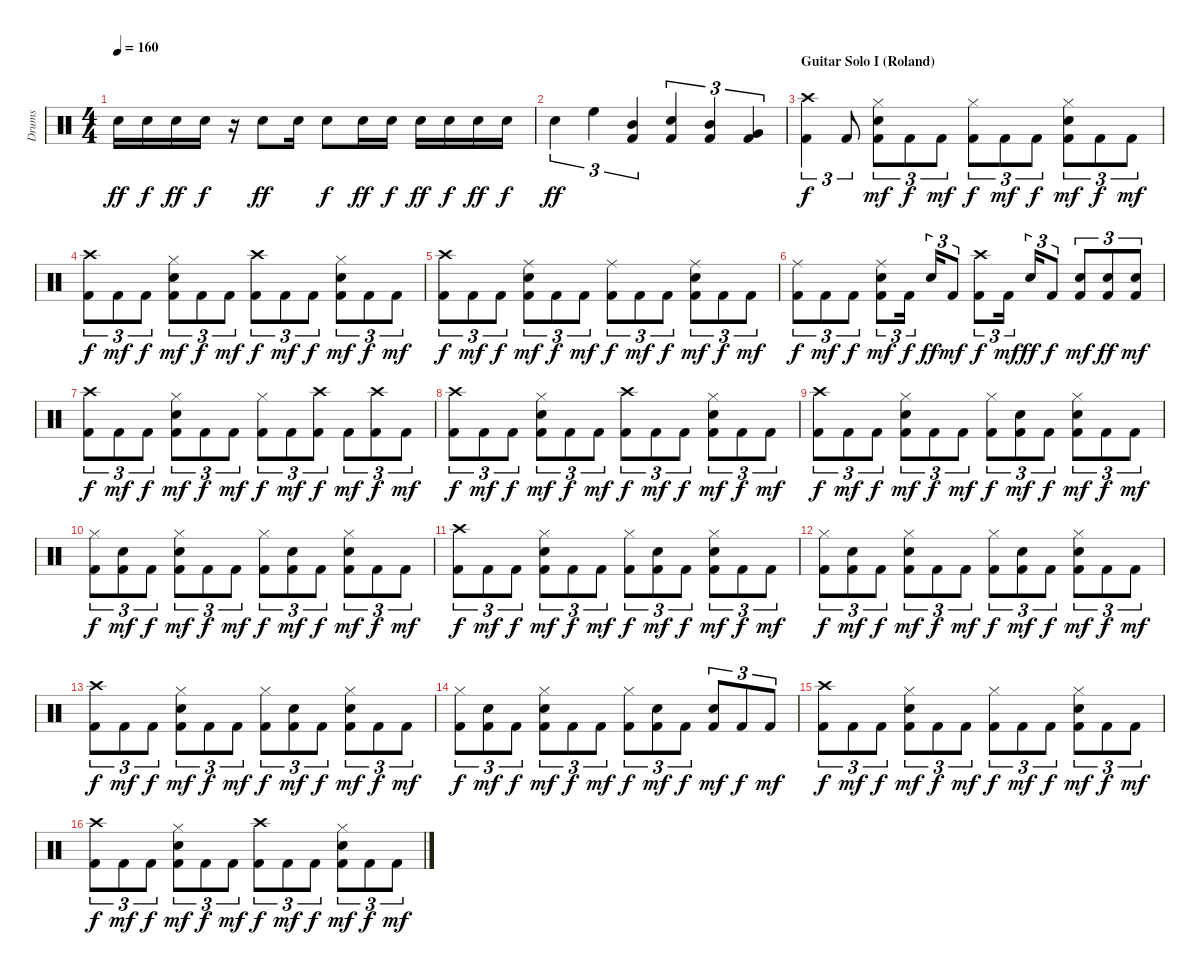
\track ("Drums" "Drums") {instrument percussion}
\staff {score}
\articulation defaults
\ts (4 4)
\tempo 160
\clef neutral
\ks c "Snare (hit) 2".16{dy ff} "Snare (hit) 2".16{dy f} "Snare (hit) 2".16{dy ff} "Snare (hit) 2".16{dy f}
r.16 "Snare (hit) 2".8{dy ff} "Snare (hit) 2".16 "Snare (hit) 2".8{dy f} "Snare (hit) 2".16{dy ff} "Snare (hit) 2".16{dy f} "Snare (hit) 2".16{dy ff} "Snare (hit) 2".16{dy f} "Snare (hit) 2".16{dy ff} "Snare (hit) 2".16{dy f} |
"Snare (hit) 2".4{tu (3 2) dy ff} "High Floor Tom (hit)".4{tu (3 2)} ("Mid Tom (hit)" "Kick (hit) 2").4{tu (3 2)} ("Snare (hit) 2" "Kick (hit) 2").4{tu (3 2)} ("Mid Tom (hit)" "Kick (hit) 2").4{tu (3 2)} ("Very Low Tom (hit)" "Kick (hit) 2").4{tu (3 2)} |
\section ("" "Guitar Solo I (Roland)")
("Crash high (hit)" "Kick (hit) 2").4{tu (3 2) dy f} "Kick (hit) 2".8{tu (3 2)} ("Snare (hit) 2" "Hi-Hat (closed)" "Kick (hit) 2").8{tu (3 2) dy mf} "Kick (hit) 2".8{tu (3 2) dy f} "Kick (hit) 2".8{tu (3 2) dy mf} ("Hi-Hat (closed)" "Kick (hit) 2").8{tu (3 2) dy f} "Kick (hit) 2".8{tu (3 2) dy mf} "Kick (hit) 2".8{tu (3 2) dy f} ("Snare (hit) 2" "Hi-Hat (closed)" "Kick (hit) 2").8{tu (3 2) dy mf} "Kick (hit) 2".8{tu (3 2) dy f} "Kick (hit) 2".8{tu (3 2) dy mf} |
("Crash high (hit)" "Kick (hit) 2").8{tu (3 2) dy f} "Kick (hit) 2".8{tu (3 2) dy mf} "Kick (hit) 2".8{tu (3 2) dy f} ("Snare (hit) 2" "Hi-Hat (closed)" "Kick (hit) 2").8{tu (3 2) dy mf} "Kick (hit) 2".8{tu (3 2) dy f} "Kick (hit) 2".8{tu (3 2) dy mf} ("Crash high (hit)" "Kick (hit) 2").8{tu (3 2) dy f} "Kick (hit) 2".8{tu (3 2) dy mf} "Kick (hit) 2".8{tu (3 2) dy f} ("Snare (hit) 2" "Hi-Hat (closed)" "Kick (hit) 2").8{tu (3 2) dy mf} "Kick (hit) 2".8{tu (3 2) dy f} "Kick (hit) 2".8{tu (3 2) dy mf} |
("Crash high (hit)" "Kick (hit) 2").8{tu (3 2) dy f} "Kick (hit) 2".8{tu (3 2) dy mf} "Kick (hit) 2".8{tu (3 2) dy f} ("Ride (middle)" "Snare (hit) 2" "Kick (hit) 2").8{tu (3 2) dy mf} "Kick (hit) 2".8{tu (3 2) dy f} "Kick (hit) 2".8{tu (3 2) dy mf} ("Ride (middle)" "Kick (hit) 2").8{tu (3 2) dy f} "Kick (hit) 2".8{tu (3 2) dy mf} "Kick (hit) 2".8{tu (3 2) dy f} ("Ride (middle)" "Snare (hit) 2" "Kick (hit) 2").8{tu (3 2) dy mf} "Kick (hit) 2".8{tu (3 2) dy f} "Kick (hit) 2".8{tu (3 2) dy mf} |
("Ride (middle)" "Kick (hit) 2").8{tu (3 2) dy f} "Kick (hit) 2".8{tu (3 2) dy mf} "Kick (hit) 2".8{tu (3 2) dy f} ("Snare (hit) 2" "Ride (middle)" "Kick (hit) 2").8{tu (3 2) dy mf} "Kick (hit) 2".16{tu (3 2) dy f} "Snare (hit) 2".16{tu (3 2) dy ff} "Kick (hit) 2".8{tu (3 2) dy mf} ("Crash high (hit)" "Kick (hit) 2").8{tu (3 2) dy f} "Kick (hit) 2".16{tu (3 2) dy mf} "Snare (hit) 2".16{tu (3 2) dy ff} "Kick (hit) 2".8{tu (3 2) dy f} ("Snare (hit) 2" "Kick (hit) 2").8{tu (3 2) dy mf} ("Snare (hit) 2" "Kick (hit) 2").8{tu (3 2) dy ff} ("Snare (hit) 2" "Kick (hit) 2").8{tu (3 2) dy mf} |
("Crash high (hit)" "Kick (hit) 2").8{tu (3 2) dy f} "Kick (hit) 2".8{tu (3 2) dy mf} "Kick (hit) 2".8{tu (3 2) dy f} ("Snare (hit) 2" "Hi-Hat (closed)" "Kick (hit) 2").8{tu (3 2) dy mf} "Kick (hit) 2".8{tu (3 2) dy f} "Kick (hit) 2".8{tu (3 2) dy mf} ("Hi-Hat (closed)" "Kick (hit) 2").8{tu (3 2) dy f} "Kick (hit) 2".8{tu (3 2) dy mf} ("Crash high (hit)" "Kick (hit) 2").8{tu (3 2) dy f} "Kick (hit) 2".8{tu (3 2) dy mf} ("Crash high (hit)" "Kick (hit) 2").8{tu (3 2) dy f} "Kick (hit) 2".8{tu (3 2) dy mf} |
("Crash high (hit)" "Kick (hit) 2").8{tu (3 2) dy f} "Kick (hit) 2".8{tu (3 2) dy mf} "Kick (hit) 2".8{tu (3 2) dy f} ("Snare (hit) 2" "Hi-Hat (closed)" "Kick (hit) 2").8{tu (3 2) dy mf} "Kick (hit) 2".8{tu (3 2) dy f} "Kick (hit) 2".8{tu (3 2) dy mf} ("Crash high (hit)" "Kick (hit) 2").8{tu (3 2) dy f} "Kick (hit) 2".8{tu (3 2) dy mf} "Kick (hit) 2".8{tu (3 2) dy f} ("Snare (hit) 2" "Hi-Hat (closed)" "Kick (hit) 2").8{tu (3 2) dy mf} "Kick (hit) 2".8{tu (3 2) dy f} "Kick (hit) 2".8{tu (3 2) dy mf} |
("Crash high (hit)" "Kick (hit) 2").8{tu (3 2) dy f} "Kick (hit) 2".8{tu (3 2) dy mf} "Kick (hit) 2".8{tu (3 2) dy f} ("Snare (hit) 2" "Hi-Hat (closed)" "Kick (hit) 2").8{tu (3 2) dy mf} "Kick (hit) 2".8{tu (3 2) dy f} "Kick (hit) 2".8{tu (3 2) dy mf} ("Hi-Hat (closed)" "Kick (hit) 2").8{tu (3 2) dy f} ("Snare (hit) 2" "Kick (hit) 2").8{tu (3 2) dy mf} "Kick (hit) 2".8{tu (3 2) dy f} ("Snare (hit) 2" "Hi-Hat (closed)" "Kick (hit) 2").8{tu (3 2) dy mf} "Kick (hit) 2".8{tu (3 2) dy f} "Kick (hit) 2".8{tu (3 2) dy mf} |
("Hi-Hat (closed)" "Kick (hit) 2").8{tu (3 2) dy f} ("Snare (hit) 2" "Kick (hit) 2").8{tu (3 2) dy mf} "Kick (hit) 2".8{tu (3 2) dy f} ("Snare (hit) 2" "Hi-Hat (closed)" "Kick (hit) 2").8{tu (3 2) dy mf} "Kick (hit) 2".8{tu (3 2) dy f} "Kick (hit) 2".8{tu (3 2) dy mf} ("Hi-Hat (closed)" "Kick (hit) 2").8{tu (3 2) dy f} ("Snare (hit) 2" "Kick (hit) 2").8{tu (3 2) dy mf} "Kick (hit) 2".8{tu (3 2) dy f} ("Snare (hit) 2" "Hi-Hat (closed)" "Kick (hit) 2").8{tu (3 2) dy mf} "Kick (hit) 2".8{tu (3 2) dy f} "Kick (hit) 2".8{tu (3 2) dy mf} |
("Crash high (hit)" "Kick (hit) 2").8{tu (3 2) dy f} "Kick (hit) 2".8{tu (3 2) dy mf} "Kick (hit) 2".8{tu (3 2) dy f} ("Snare (hit) 2" "Hi-Hat (closed)" "Kick (hit) 2").8{tu (3 2) dy mf} "Kick (hit) 2".8{tu (3 2) dy f} "Kick (hit) 2".8{tu (3 2) dy mf} ("Hi-Hat (closed)" "Kick (hit) 2").8{tu (3 2) dy f} ("Snare (hit) 2" "Kick (hit) 2").8{tu (3 2) dy mf} "Kick (hit) 2".8{tu (3 2) dy f} ("Snare (hit) 2" "Hi-Hat (closed)" "Kick (hit) 2").8{tu (3 2) dy mf} "Kick (hit) 2".8{tu (3 2) dy f} "Kick (hit) 2".8{tu (3 2) dy mf} |
("Hi-Hat (closed)" "Kick (hit) 2").8{tu (3 2) dy f} ("Snare (hit) 2" "Kick (hit) 2").8{tu (3 2) dy mf} "Kick (hit) 2".8{tu (3 2) dy f} ("Snare (hit) 2" "Hi-Hat (closed)" "Kick (hit) 2").8{tu (3 2) dy mf} "Kick (hit) 2".8{tu (3 2) dy f} "Kick (hit) 2".8{tu (3 2) dy mf} ("Hi-Hat (closed)" "Kick (hit) 2").8{tu (3 2) dy f} ("Snare (hit) 2" "Kick (hit) 2").8{tu (3 2) dy mf} "Kick (hit) 2".8{tu (3 2) dy f} ("Snare (hit) 2" "Hi-Hat (closed)" "Kick (hit) 2").8{tu (3 2) dy mf} "Kick (hit) 2".8{tu (3 2) dy f} "Kick (hit) 2".8{tu (3 2) dy mf} |
("Crash high (hit)" "Kick (hit) 2").8{tu (3 2) dy f} "Kick (hit) 2".8{tu (3 2) dy mf} "Kick (hit) 2".8{tu (3 2) dy f} ("Snare (hit) 2" "Hi-Hat (closed)" "Kick (hit) 2").8{tu (3 2) dy mf} "Kick (hit) 2".8{tu (3 2) dy f} "Kick (hit) 2".8{tu (3 2) dy mf} ("Hi-Hat (closed)" "Kick (hit) 2").8{tu (3 2) dy f} ("Snare (hit) 2" "Kick (hit) 2").8{tu (3 2) dy mf} "Kick (hit) 2".8{tu (3 2) dy f} ("Snare (hit) 2" "Hi-Hat (closed)" "Kick (hit) 2").8{tu (3 2) dy mf} "Kick (hit) 2".8{tu (3 2) dy f} "Kick (hit) 2".8{tu (3 2) dy mf} |
("Hi-Hat (closed)" "Kick (hit) 2").8{tu (3 2) dy f} ("Snare (hit) 2" "Kick (hit) 2").8{tu (3 2) dy mf} "Kick (hit) 2".8{tu (3 2) dy f} ("Snare (hit) 2" "Hi-Hat (closed)" "Kick (hit) 2").8{tu (3 2) dy mf} "Kick (hit) 2".8{tu (3 2) dy f} "Kick (hit) 2".8{tu (3 2) dy mf} ("Hi-Hat (closed)" "Kick (hit) 2").8{tu (3 2) dy f} ("Snare (hit) 2" "Kick (hit) 2").8{tu (3 2) dy mf} "Kick (hit) 2".8{tu (3 2) dy f} ("Snare (hit) 2" "Kick (hit) 2").8{tu (3 2) dy mf} "Kick (hit) 2".8{tu (3 2) dy f} "Kick (hit) 2".8{tu (3 2) dy mf} |
("Crash high (hit)" "Kick (hit) 2").8{tu (3 2) dy f} "Kick (hit) 2".8{tu (3 2) dy mf} "Kick (hit) 2".8{tu (3 2) dy f} ("Snare (hit) 2" "Hi-Hat (closed)" "Kick (hit) 2").8{tu (3 2) dy mf} "Kick (hit) 2".8{tu (3 2) dy f} "Kick (hit) 2".8{tu (3 2) dy mf} ("Hi-Hat (closed)" "Kick (hit) 2").8{tu (3 2) dy f} "Kick (hit) 2".8{tu (3 2) dy mf} "Kick (hit) 2".8{tu (3 2) dy f} ("Snare (hit) 2" "Hi-Hat (closed)" "Kick (hit) 2").8{tu (3 2) dy mf} "Kick (hit) 2".8{tu (3 2) dy f} "Kick (hit) 2".8{tu (3 2) dy mf} |
("Crash high (hit)" "Kick (hit) 2").8{tu (3 2) dy f} "Kick (hit) 2".8{tu (3 2) dy mf} "Kick (hit) 2".8{tu (3 2) dy f} ("Snare (hit) 2" "Hi-Hat (closed)" "Kick (hit) 2").8{tu (3 2) dy mf} "Kick (hit) 2".8{tu (3 2) dy f} "Kick (hit) 2".8{tu (3 2) dy mf} ("Crash high (hit)" "Kick (hit) 2").8{tu (3 2) dy f} "Kick (hit) 2".8{tu (3 2) dy mf} "Kick (hit) 2".8{tu (3 2) dy f} ("Snare (hit) 2" "Hi-Hat (closed)" "Kick (hit) 2").8{tu (3 2) dy mf} "Kick (hit) 2".8{tu (3 2) dy f} "Kick (hit) 2".8{tu (3 2) dy mf}
